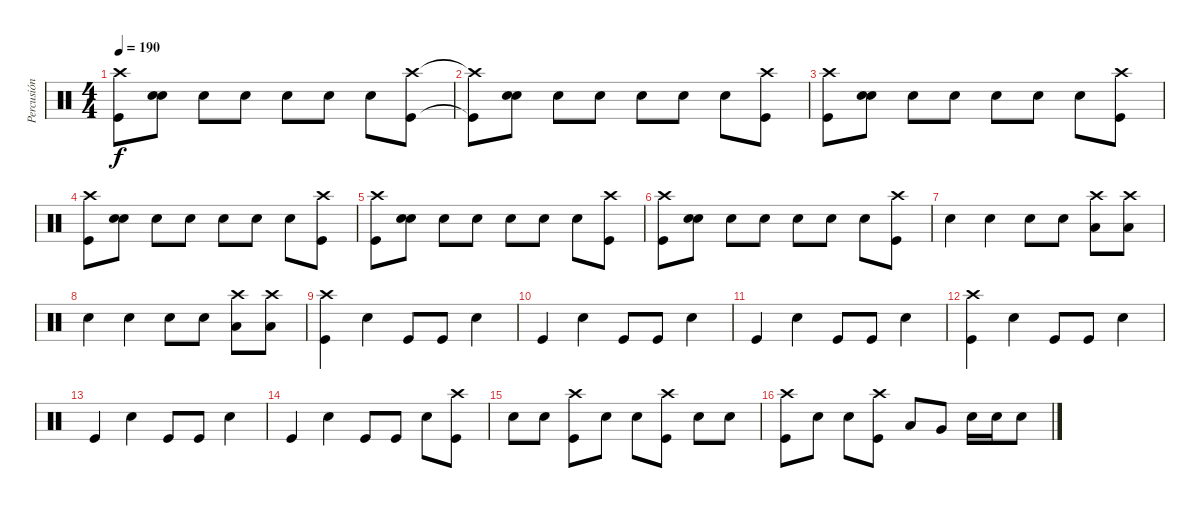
\track ("Percusión" "Percusión") {instrument percussion}
\staff {score}
\articulation defaults
\ts (4 4)
\tempo 190
\clef neutral
\ks c
("Crash high (hit)" "Kick (hit)").8{dy f} ("Snare (hit)"{x} "Snare (hit)"{x}).8 "Snare (hit)"{x}.8 "Snare (hit)"{x}.8 "Snare (hit)"{x}.8 "Snare (hit)"{x}.8 "Snare (hit)"{x}.8 ("Crash high (hit)" "Kick (hit)").8 |
("Crash high (hit)"{t} "Kick (hit)"{t}).8 ("Snare (hit)"{x} "Snare (hit)"{x}).8 "Snare (hit)"{x}.8 "Snare (hit)"{x}.8 "Snare (hit)"{x}.8 "Snare (hit)"{x}.8 "Snare (hit)"{x}.8 ("Crash high (hit)" "Kick (hit)").8 |
("Crash high (hit)" "Kick (hit)").8 ("Snare (hit)"{x} "Snare (hit)"{x}).8 "Snare (hit)"{x}.8 "Snare (hit)"{x}.8 "Snare (hit)"{x}.8 "Snare (hit)"{x}.8 "Snare (hit)"{x}.8 ("Crash high (hit)" "Kick (hit)").8 |
("Crash high (hit)" "Kick (hit)").8 ("Snare (hit)"{x} "Snare (hit)"{x}).8 "Snare (hit)"{x}.8 "Snare (hit)"{x}.8 "Snare (hit)"{x}.8 "Snare (hit)"{x}.8 "Snare (hit)"{x}.8 ("Crash high (hit)" "Kick (hit)").8 |
("Crash high (hit)" "Kick (hit)").8 ("Snare (hit)"{x} "Snare (hit)"{x}).8 "Snare (hit)"{x}.8 "Snare (hit)"{x}.8 "Snare (hit)"{x}.8 "Snare (hit)"{x}.8 "Snare (hit)"{x}.8 ("Crash high (hit)" "Kick (hit)").8 |
("Crash high (hit)" "Kick (hit)").8 ("Snare (hit)"{x} "Snare (hit)"{x}).8 "Snare (hit)"{x}.8 "Snare (hit)"{x}.8 "Snare (hit)"{x}.8 "Snare (hit)"{x}.8 "Snare (hit)"{x}.8 ("Crash high (hit)" "Kick (hit)").8 |
"Snare (hit) 2".4 "Snare (hit) 2".4 "Snare (hit) 2".8 "Snare (hit) 2".8 ("Crash high (hit)" "Low Floor Tom (hit)").8 ("Crash high (hit)" "Low Floor Tom (hit)").8 |
"Snare (hit) 2".4 "Snare (hit) 2".4 "Snare (hit) 2".8 "Snare (hit) 2".8 ("Crash high (hit)" "Low Floor Tom (hit)").8 ("Crash high (hit)" "Low Floor Tom (hit)").8 |
("Crash high (hit)" "Kick (hit)").4 "Electric Snare (hit)".4 "Kick (hit)".8 "Kick (hit)".8 "Electric Snare (hit)".4 |
"Kick (hit)".4 "Electric Snare (hit)".4 "Kick (hit)".8 "Kick (hit)".8 "Electric Snare (hit)".4 |
"Kick (hit)".4 "Electric Snare (hit)".4 "Kick (hit)".8 "Kick (hit)".8 "Electric Snare (hit)".4 |
("Crash high (hit)" "Kick (hit)").4 "Electric Snare (hit)".4 "Kick (hit)".8 "Kick (hit)".8 "Electric Snare (hit)".4 |
"Kick (hit)".4 "Electric Snare (hit)".4 "Kick (hit)".8 "Kick (hit)".8 "Electric Snare (hit)".4 |
"Kick (hit)".4 "Electric Snare (hit)".4 "Kick (hit)".8 "Kick (hit)".8 "Electric Snare (hit)".8 ("Crash high (hit)" "Kick (hit)").8 |
"Electric Snare (hit)".8 "Electric Snare (hit)".8 ("Crash high (hit)" "Kick (hit)").8 "Electric Snare (hit)".8 "Electric Snare (hit)".8 ("Crash high (hit)" "Kick (hit)").8 "Electric Snare (hit)".8 "Electric Snare (hit)".8 |
("Crash high (hit)" "Kick (hit)").8 "Electric Snare (hit)".8 "Electric Snare (hit)".8 ("Crash high (hit)" "Kick (hit)").8 "Low Floor Tom (hit)".8 "Very Low Tom (hit)".8 "Electric Snare (hit)".16 "Electric Snare (hit)".16 "Electric Snare (hit)".8
